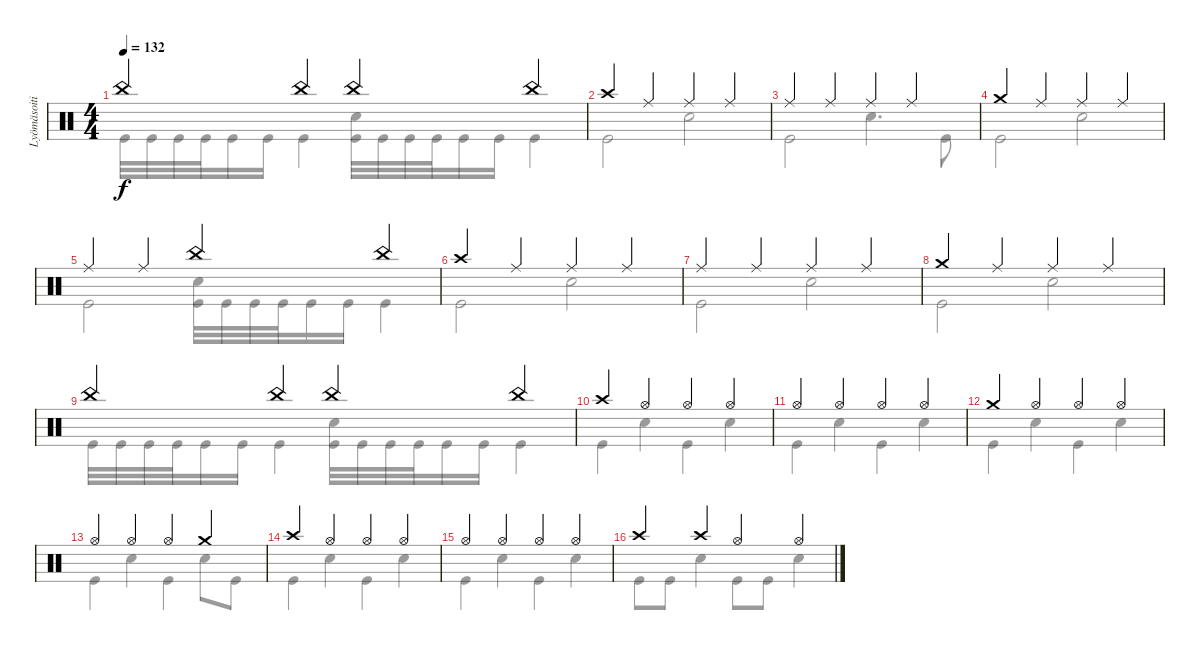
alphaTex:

\track ("Lyömäsoitin" "Lyömäsoiti") {instrument percussion}
\staff {score}
\articulation defaults
\voice
\ts (4 4)
\tempo 132
\clef neutral
\ks c "China (hit)".4{dy f} "China (hit)".4 "China (hit)".4 "China (hit)".4
|
"Crash high (hit)".4 "Ride (middle)".4 "Ride (middle)".4 "Ride (middle)".4 |
"Ride (middle)".4 "Ride (middle)".4 "Ride (middle)".4 "Ride (middle)".4 |
"Crash medium (hit)".4 "Ride (middle)".4 "Ride (middle)".4 "Ride (middle)".4 |
"Ride (middle)".4 "Ride (middle)".4 "China (hit)".4 "China (hit)".4 |
"Crash high (hit)".4 "Ride (middle)".4 "Ride (middle)".4 "Ride (middle)".4 |
"Ride (middle)".4 "Ride (middle)".4 "Ride (middle)".4 "Ride (middle)".4 |
"Crash medium (hit)".4 "Ride (middle)".4 "Ride (middle)".4 "Ride (middle)".4 |
"China (hit)".4 "China (hit)".4 "China (hit)".4 "China (hit)".4 |
"Crash high (hit)".4 "Hi-Hat (open)".4 "Hi-Hat (open)".4 "Hi-Hat (open)".4 |
"Hi-Hat (open)".4 "Hi-Hat (open)".4 "Hi-Hat (open)".4 "Hi-Hat (open)".4 |
"Crash medium (hit)".4 "Hi-Hat (open)".4 "Hi-Hat (open)".4 "Hi-Hat (open)".4 |
"Hi-Hat (open)".4 "Hi-Hat (open)".4 "Hi-Hat (open)".4 "Crash medium (hit)".4 |
"Crash high (hit)".4 "Hi-Hat (open)".4 "Hi-Hat (open)".4 "Hi-Hat (open)".4 |
"Hi-Hat (open)".4 "Hi-Hat (open)".4 "Hi-Hat (open)".4 "Hi-Hat (open)".4 |
"Crash high (hit)".4 "Crash high (hit)".4 "Hi-Hat (open)".4 "Hi-Hat (open)".4
\voice
\clef neutral
\ottava regular
\simile none
\ks c "Kick (hit)".32{dy f} "Kick (hit)".32 "Kick (hit)".32 "Kick (hit)".32 "Kick (hit)".16 "Kick (hit)".16 "Kick (hit)".4
("Electric Snare (hit)" "Kick (hit)").32 "Kick (hit)".32 "Kick (hit)".32 "Kick (hit)".32 "Kick (hit)".16 "Kick (hit)".16 "Kick (hit)".4 |
"Kick (hit)".2 "Electric Snare (hit)".2 |
"Kick (hit)".2 "Electric Snare (hit)".4{d} "Kick (hit)".8 |
"Kick (hit)".2 "Electric Snare (hit)".2 |
"Kick (hit)".2 ("Electric Snare (hit)" "Kick (hit)").32 "Kick (hit)".32 "Kick (hit)".32 "Kick (hit)".32 "Kick (hit)".16 "Kick (hit)".16 "Kick (hit)".4 |
"Kick (hit)".2 "Electric Snare (hit)".2 |
"Kick (hit)".2 "Electric Snare (hit)".2 |
"Kick (hit)".2 "Electric Snare (hit)".2 |
"Kick (hit)".32 "Kick (hit)".32 "Kick (hit)".32 "Kick (hit)".32 "Kick (hit)".16 "Kick (hit)".16 "Kick (hit)".4 ("Electric Snare (hit)" "Kick (hit)").32 "Kick (hit)".32 "Kick (hit)".32 "Kick (hit)".32 "Kick (hit)".16 "Kick (hit)".16 "Kick (hit)".4 |
"Kick (hit)".4 "Electric Snare (hit)".4 "Kick (hit)".4 "Electric Snare (hit)".4 |
"Kick (hit)".4 "Electric Snare (hit)".4 "Kick (hit)".4 "Electric Snare (hit)".4 |
"Kick (hit)".4 "Electric Snare (hit)".4 "Kick (hit)".4 "Electric Snare (hit)".4 |
"Kick (hit)".4 "Electric Snare (hit)".4 "Kick (hit)".4 "Electric Snare (hit)".8 "Kick (hit)".8 |
"Kick (hit)".4 "Electric Snare (hit)".4 "Kick (hit)".4 "Electric Snare (hit)".4 |
"Kick (hit)".4 "Electric Snare (hit)".4 "Kick (hit)".4 "Electric Snare (hit)".4 |
"Kick (hit)".8 "Kick (hit)".8 "Electric Snare (hit)".4 "Kick (hit)".8 "Kick (hit)".8 "Electric Snare (hit)".4
